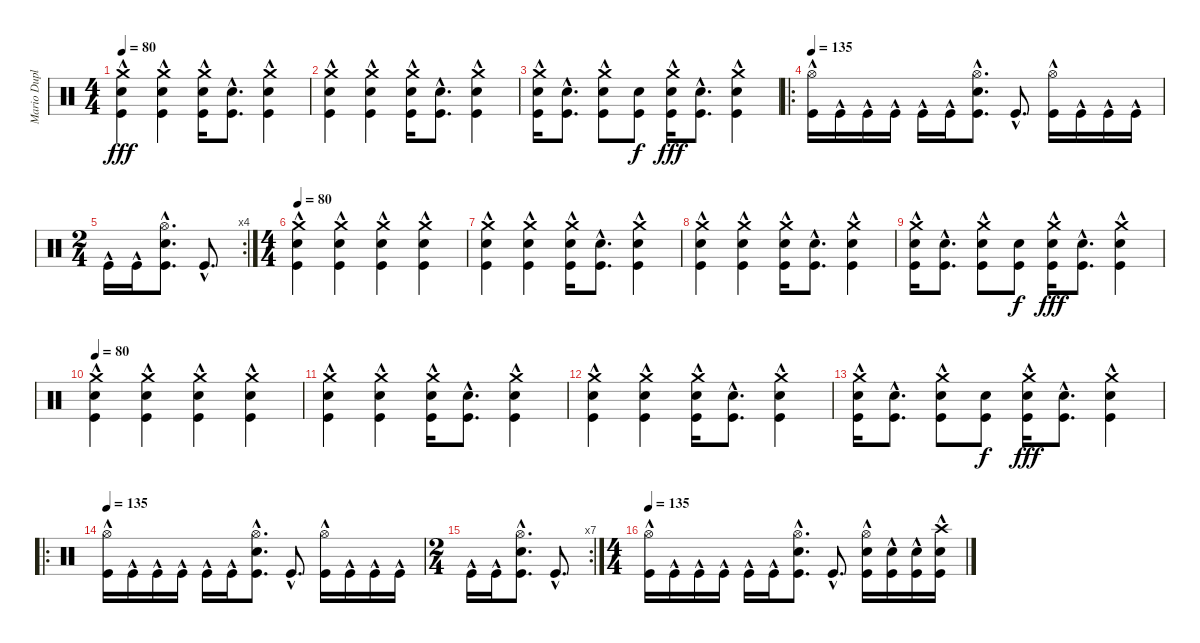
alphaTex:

\track ("Mario Duplantier" "Mario Dupl") {instrument percussion}
\staff {score}
\articulation defaults
\ts (4 4)
\tempo 80
\clef neutral
\ks c
("Crash medium (hit)" "Electric Snare (hit)" "Kick (hit)"{hac}).4{dy fff} ("Crash medium (hit)" "Electric Snare (hit)" "Kick (hit)"{hac}).4 ("Crash medium (hit)" "Electric Snare (hit)" "Kick (hit)"{hac}).16 ("Electric Snare (hit)" "Kick (hit)"{hac}).8{d} ("Crash medium (hit)" "Electric Snare (hit)" "Kick (hit)"{hac}).4 |
("Crash medium (hit)" "Electric Snare (hit)" "Kick (hit)"{hac}).4 ("Crash medium (hit)" "Electric Snare (hit)" "Kick (hit)"{hac}).4 ("Crash medium (hit)" "Electric Snare (hit)" "Kick (hit)"{hac}).16 ("Electric Snare (hit)" "Kick (hit)"{hac}).8{d} ("Crash medium (hit)" "Electric Snare (hit)" "Kick (hit)"{hac}).4 |
("Crash medium (hit)" "Electric Snare (hit)" "Kick (hit)"{hac}).16 ("Electric Snare (hit)" "Kick (hit)"{hac}).8{d} ("Crash medium (hit)" "Electric Snare (hit)" "Kick (hit)"{hac}).8 ("Electric Snare (hit)" "Kick (hit)").8{dy f} ("Crash medium (hit)" "Electric Snare (hit)" "Kick (hit)"{hac}).16{dy fff} ("Electric Snare (hit)" "Kick (hit)"{hac}).8{d} ("Crash medium (hit)" "Electric Snare (hit)" "Kick (hit)"{hac}).4 |
\ro
\tempo 135
("Hi-Hat (open)" "Kick (hit)"{hac}).16 "Kick (hit)"{hac}.16 "Kick (hit)"{hac}.16 "Kick (hit)"{hac}.16 "Kick (hit)"{hac}.16 "Kick (hit)"{hac}.16 ("Hi-Hat (open)" "Electric Snare (hit)" "Kick (hit)"{hac}).8{d} "Kick (hit)"{hac}.8{d} ("Hi-Hat (open)" "Kick (hit)"{hac}).16 "Kick (hit)"{hac}.16 "Kick (hit)"{hac}.16 "Kick (hit)"{hac}.16 |
\rc 4
\ts (2 4)
"Kick (hit)"{hac}.16 "Kick (hit)"{hac}.16 ("Hi-Hat (open)" "Electric Snare (hit)" "Kick (hit)"{hac}).8{d} "Kick (hit)"{hac}.8{d} |
\ts (4 4)
\tempo 80
("Crash medium (hit)" "Electric Snare (hit)" "Kick (hit)"{hac}).4 ("Crash medium (hit)" "Electric Snare (hit)" "Kick (hit)"{hac}).4 ("Crash medium (hit)" "Electric Snare (hit)" "Kick (hit)"{hac}).4 ("Crash medium (hit)" "Electric Snare (hit)" "Kick (hit)"{hac}).4 |
("Crash medium (hit)" "Electric Snare (hit)" "Kick (hit)"{hac}).4 ("Crash medium (hit)" "Electric Snare (hit)" "Kick (hit)"{hac}).4 ("Crash medium (hit)" "Electric Snare (hit)" "Kick (hit)"{hac}).16 ("Electric Snare (hit)" "Kick (hit)"{hac}).8{d} ("Crash medium (hit)" "Electric Snare (hit)" "Kick (hit)"{hac}).4 |
("Crash medium (hit)" "Electric Snare (hit)" "Kick (hit)"{hac}).4 ("Crash medium (hit)" "Electric Snare (hit)" "Kick (hit)"{hac}).4 ("Crash medium (hit)" "Electric Snare (hit)" "Kick (hit)"{hac}).16 ("Electric Snare (hit)" "Kick (hit)"{hac}).8{d} ("Crash medium (hit)" "Electric Snare (hit)" "Kick (hit)"{hac}).4 |
("Crash medium (hit)" "Electric Snare (hit)" "Kick (hit)"{hac}).16 ("Electric Snare (hit)" "Kick (hit)"{hac}).8{d} ("Crash medium (hit)" "Electric Snare (hit)" "Kick (hit)"{hac}).8 ("Electric Snare (hit)" "Kick (hit)").8{dy f} ("Crash medium (hit)" "Electric Snare (hit)" "Kick (hit)"{hac}).16{dy fff} ("Electric Snare (hit)" "Kick (hit)"{hac}).8{d} ("Crash medium (hit)" "Electric Snare (hit)" "Kick (hit)"{hac}).4 |
\tempo 80
("Crash medium (hit)" "Electric Snare (hit)" "Kick (hit)"{hac}).4 ("Crash medium (hit)" "Electric Snare (hit)" "Kick (hit)"{hac}).4 ("Crash medium (hit)" "Electric Snare (hit)" "Kick (hit)"{hac}).4 ("Crash medium (hit)" "Electric Snare (hit)" "Kick (hit)"{hac}).4 |
("Crash medium (hit)" "Electric Snare (hit)" "Kick (hit)"{hac}).4 ("Crash medium (hit)" "Electric Snare (hit)" "Kick (hit)"{hac}).4 ("Crash medium (hit)" "Electric Snare (hit)" "Kick (hit)"{hac}).16 ("Electric Snare (hit)" "Kick (hit)"{hac}).8{d} ("Crash medium (hit)" "Electric Snare (hit)" "Kick (hit)"{hac}).4 |
("Crash medium (hit)" "Electric Snare (hit)" "Kick (hit)"{hac}).4 ("Crash medium (hit)" "Electric Snare (hit)" "Kick (hit)"{hac}).4 ("Crash medium (hit)" "Electric Snare (hit)" "Kick (hit)"{hac}).16 ("Electric Snare (hit)" "Kick (hit)"{hac}).8{d} ("Crash medium (hit)" "Electric Snare (hit)" "Kick (hit)"{hac}).4 |
("Crash medium (hit)" "Electric Snare (hit)" "Kick (hit)"{hac}).16 ("Electric Snare (hit)" "Kick (hit)"{hac}).8{d} ("Crash medium (hit)" "Electric Snare (hit)" "Kick (hit)"{hac}).8 ("Electric Snare (hit)" "Kick (hit)").8{dy f} ("Crash medium (hit)" "Electric Snare (hit)" "Kick (hit)"{hac}).16{dy fff} ("Electric Snare (hit)" "Kick (hit)"{hac}).8{d} ("Crash medium (hit)" "Electric Snare (hit)" "Kick (hit)"{hac}).4 |
\ro
\tempo 135
("Hi-Hat (open)" "Kick (hit)"{hac}).16 "Kick (hit)"{hac}.16 "Kick (hit)"{hac}.16 "Kick (hit)"{hac}.16 "Kick (hit)"{hac}.16 "Kick (hit)"{hac}.16 ("Hi-Hat (open)" "Electric Snare (hit)" "Kick (hit)"{hac}).8{d} "Kick (hit)"{hac}.8{d} ("Hi-Hat (open)" "Kick (hit)"{hac}).16 "Kick (hit)"{hac}.16 "Kick (hit)"{hac}.16 "Kick (hit)"{hac}.16 |
\rc 7
\ts (2 4)
"Kick (hit)"{hac}.16 "Kick (hit)"{hac}.16 ("Hi-Hat (open)" "Electric Snare (hit)" "Kick (hit)"{hac}).8{d} "Kick (hit)"{hac}.8{d} |
\ts (4 4)
\tempo 135
("Hi-Hat (open)" "Kick (hit)"{hac}).16 "Kick (hit)"{hac}.16 "Kick (hit)"{hac}.16 "Kick (hit)"{hac}.16 "Kick (hit)"{hac}.16 "Kick (hit)"{hac}.16 ("Hi-Hat (open)" "Electric Snare (hit)" "Kick (hit)"{hac}).8{d} "Kick (hit)"{hac}.8{d} ("Hi-Hat (open)" "Electric Snare (hit)" "Kick (hit)"{hac}).16 ("Electric Snare (hit)" "Kick (hit)"{hac}).16 ("Electric Snare (hit)" "Kick (hit)"{hac}).16 ("Crash high (hit)" "Electric Snare (hit)" "Kick (hit)"{hac}).16
